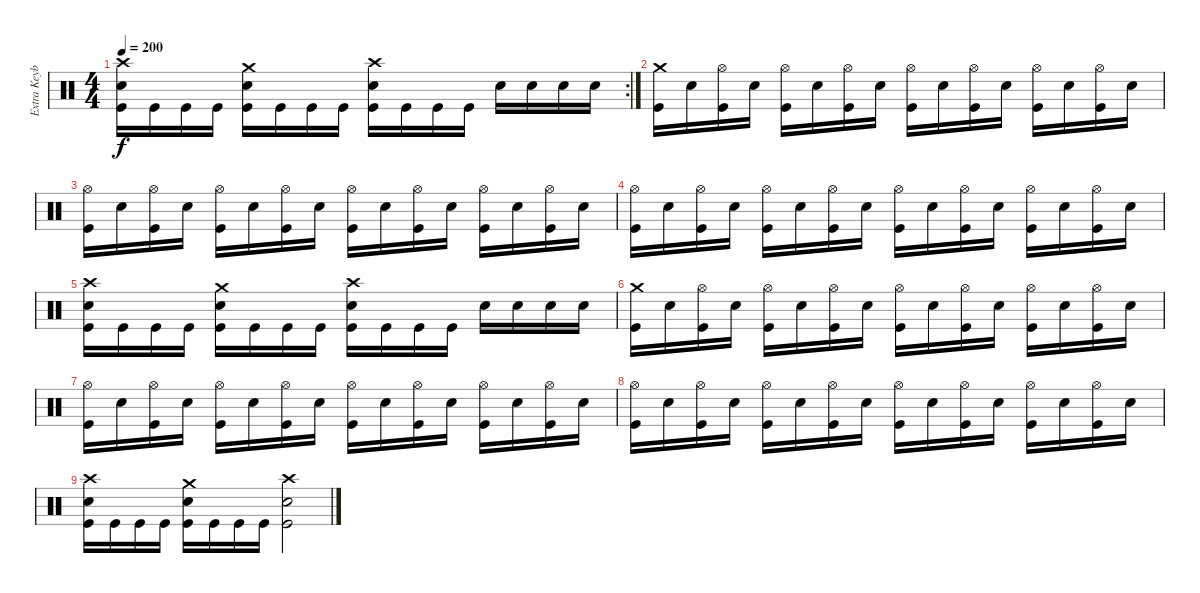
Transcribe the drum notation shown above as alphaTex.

\track ("Extra Keyboard" "Extra Keyb") {instrument percussion}
\staff {score}
\articulation defaults
\rc 2
\ts (4 4)
\tempo 200
\clef neutral
\ks c
("Crash high (hit)" "Electric Snare (hit)" "Kick (hit)").16{dy f} "Kick (hit)".16 "Kick (hit)".16 "Kick (hit)".16 ("Crash medium (hit)" "Electric Snare (hit)" "Kick (hit)").16 "Kick (hit)".16 "Kick (hit)".16 "Kick (hit)".16 ("Crash high (hit)" "Electric Snare (hit)" "Kick (hit)").16 "Kick (hit)".16 "Kick (hit)".16 "Kick (hit)".16 "Electric Snare (hit)".16 "Electric Snare (hit)".16 "Electric Snare (hit)".16 "Electric Snare (hit)".16 |
("Crash medium (hit)" "Kick (hit)").16 "Electric Snare (hit)".16 ("Hi-Hat (open)" "Kick (hit)").16 "Electric Snare (hit)".16 ("Hi-Hat (open)" "Kick (hit)").16 "Electric Snare (hit)".16 ("Hi-Hat (open)" "Kick (hit)").16 "Electric Snare (hit)".16 ("Hi-Hat (open)" "Kick (hit)").16 "Electric Snare (hit)".16 ("Hi-Hat (open)" "Kick (hit)").16 "Electric Snare (hit)".16 ("Hi-Hat (open)" "Kick (hit)").16 "Electric Snare (hit)".16 ("Hi-Hat (open)" "Kick (hit)").16 "Electric Snare (hit)".16 |
("Hi-Hat (open)" "Kick (hit)").16 "Electric Snare (hit)".16 ("Hi-Hat (open)" "Kick (hit)").16 "Electric Snare (hit)".16 ("Hi-Hat (open)" "Kick (hit)").16 "Electric Snare (hit)".16 ("Hi-Hat (open)" "Kick (hit)").16 "Electric Snare (hit)".16 ("Hi-Hat (open)" "Kick (hit)").16 "Electric Snare (hit)".16 ("Hi-Hat (open)" "Kick (hit)").16 "Electric Snare (hit)".16 ("Hi-Hat (open)" "Kick (hit)").16 "Electric Snare (hit)".16 ("Hi-Hat (open)" "Kick (hit)").16 "Electric Snare (hit)".16 |
("Hi-Hat (open)" "Kick (hit)").16 "Electric Snare (hit)".16 ("Hi-Hat (open)" "Kick (hit)").16 "Electric Snare (hit)".16 ("Hi-Hat (open)" "Kick (hit)").16 "Electric Snare (hit)".16 ("Hi-Hat (open)" "Kick (hit)").16 "Electric Snare (hit)".16 ("Hi-Hat (open)" "Kick (hit)").16 "Electric Snare (hit)".16 ("Hi-Hat (open)" "Kick (hit)").16 "Electric Snare (hit)".16 ("Hi-Hat (open)" "Kick (hit)").16 "Electric Snare (hit)".16 ("Hi-Hat (open)" "Kick (hit)").16 "Electric Snare (hit)".16 |
("Crash high (hit)" "Electric Snare (hit)" "Kick (hit)").16 "Kick (hit)".16 "Kick (hit)".16 "Kick (hit)".16 ("Crash medium (hit)" "Electric Snare (hit)" "Kick (hit)").16 "Kick (hit)".16 "Kick (hit)".16 "Kick (hit)".16 ("Crash high (hit)" "Electric Snare (hit)" "Kick (hit)").16 "Kick (hit)".16 "Kick (hit)".16 "Kick (hit)".16 "Electric Snare (hit)".16 "Electric Snare (hit)".16 "Electric Snare (hit)".16 "Electric Snare (hit)".16 |
("Crash medium (hit)" "Kick (hit)").16 "Electric Snare (hit)".16 ("Hi-Hat (open)" "Kick (hit)").16 "Electric Snare (hit)".16 ("Hi-Hat (open)" "Kick (hit)").16 "Electric Snare (hit)".16 ("Hi-Hat (open)" "Kick (hit)").16 "Electric Snare (hit)".16 ("Hi-Hat (open)" "Kick (hit)").16 "Electric Snare (hit)".16 ("Hi-Hat (open)" "Kick (hit)").16 "Electric Snare (hit)".16 ("Hi-Hat (open)" "Kick (hit)").16 "Electric Snare (hit)".16 ("Hi-Hat (open)" "Kick (hit)").16 "Electric Snare (hit)".16 |
("Hi-Hat (open)" "Kick (hit)").16 "Electric Snare (hit)".16 ("Hi-Hat (open)" "Kick (hit)").16 "Electric Snare (hit)".16 ("Hi-Hat (open)" "Kick (hit)").16 "Electric Snare (hit)".16 ("Hi-Hat (open)" "Kick (hit)").16 "Electric Snare (hit)".16 ("Hi-Hat (open)" "Kick (hit)").16 "Electric Snare (hit)".16 ("Hi-Hat (open)" "Kick (hit)").16 "Electric Snare (hit)".16 ("Hi-Hat (open)" "Kick (hit)").16 "Electric Snare (hit)".16 ("Hi-Hat (open)" "Kick (hit)").16 "Electric Snare (hit)".16 |
("Hi-Hat (open)" "Kick (hit)").16 "Electric Snare (hit)".16 ("Hi-Hat (open)" "Kick (hit)").16 "Electric Snare (hit)".16 ("Hi-Hat (open)" "Kick (hit)").16 "Electric Snare (hit)".16 ("Hi-Hat (open)" "Kick (hit)").16 "Electric Snare (hit)".16 ("Hi-Hat (open)" "Kick (hit)").16 "Electric Snare (hit)".16 ("Hi-Hat (open)" "Kick (hit)").16 "Electric Snare (hit)".16 ("Hi-Hat (open)" "Kick (hit)").16 "Electric Snare (hit)".16 ("Hi-Hat (open)" "Kick (hit)").16 "Electric Snare (hit)".16 |
("Crash high (hit)" "Electric Snare (hit)" "Kick (hit)").16 "Kick (hit)".16 "Kick (hit)".16 "Kick (hit)".16 ("Crash medium (hit)" "Electric Snare (hit)" "Kick (hit)").16 "Kick (hit)".16 "Kick (hit)".16 "Kick (hit)".16 ("Crash high (hit)" "Electric Snare (hit)" "Kick (hit)").2
